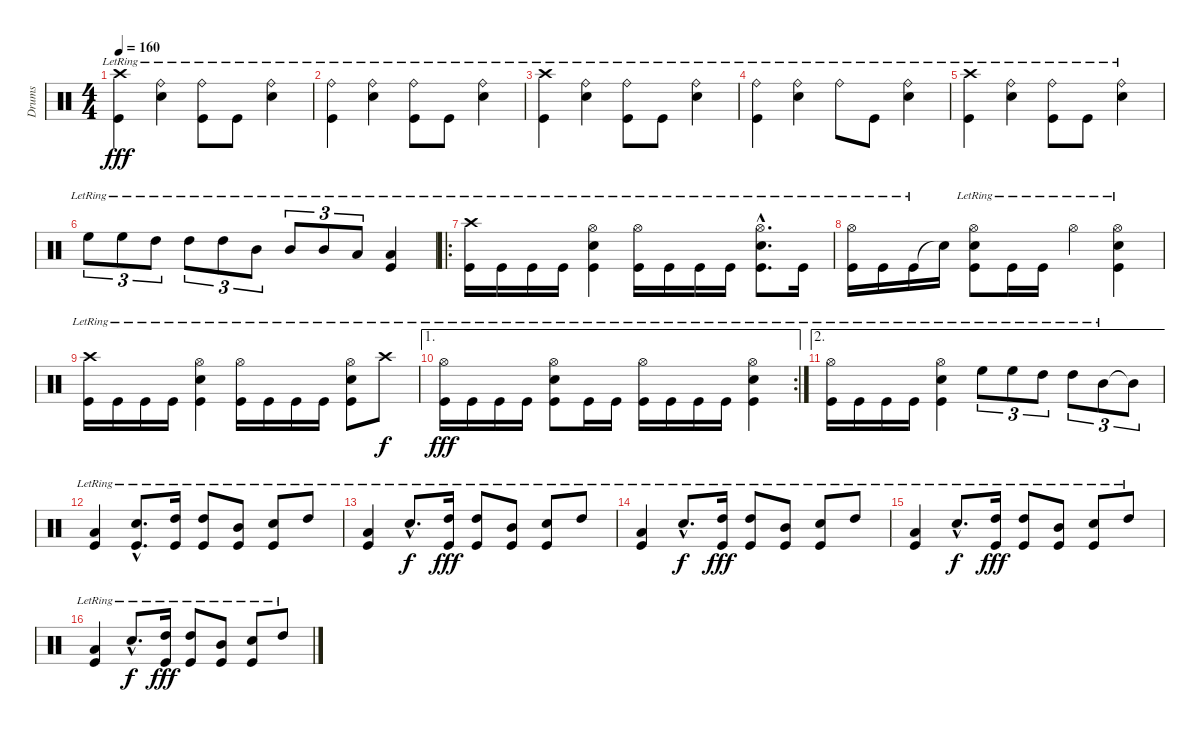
\track ("Drums" "Drums") {instrument percussion}
\staff {score}
\articulation defaults
\ts (4 4)
\tempo 160
\clef neutral
\ks c
("Crash high (hit)"{lr} "Kick (hit)"{lr}).4{dy fff} ("Ride (bell)"{lr} "Snare (hit) 2"{lr}).4 ("Ride (bell)"{lr} "Kick (hit)"{lr}).8 "Kick (hit)"{lr}.8 ("Ride (bell)"{lr} "Snare (hit) 2"{lr}).4 |
("Ride (bell)"{lr} "Kick (hit)"{lr}).4 ("Ride (bell)"{lr} "Snare (hit) 2"{lr}).4 ("Ride (bell)"{lr} "Kick (hit)"{lr}).8 "Kick (hit)"{lr}.8 ("Ride (bell)"{lr} "Snare (hit) 2"{lr}).4 |
("Crash high (hit)"{lr} "Kick (hit)"{lr}).4 ("Ride (bell)"{lr} "Snare (hit) 2"{lr}).4 ("Ride (bell)"{lr} "Kick (hit)"{lr}).8 "Kick (hit)"{lr}.8 ("Ride (bell)"{lr} "Snare (hit) 2"{lr}).4 |
("Ride (bell)"{lr} "Kick (hit)"{lr}).4 ("Ride (bell)"{lr} "Snare (hit) 2"{lr}).4 "Ride (bell)"{lr}.8 "Kick (hit)"{lr}.8 ("Ride (bell)"{lr} "Snare (hit) 2"{lr}).4 |
("Crash high (hit)"{lr} "Kick (hit)"{lr}).4 ("Ride (bell)"{lr} "Snare (hit) 2"{lr}).4 ("Ride (bell)"{lr} "Kick (hit)"{lr}).8 "Kick (hit)"{lr}.8 ("Ride (bell)"{lr} "Snare (hit) 2"{lr}).4 |
"High Floor Tom (hit)"{lr}.8{tu (3 2)} "High Floor Tom (hit)"{lr}.8{tu (3 2)} "High Tom (hit)"{lr}.8{tu (3 2)} "High Tom (hit)"{lr}.8{tu (3 2)} "High Tom (hit)"{lr}.8{tu (3 2)} "Mid Tom (hit)"{lr}.8{tu (3 2)} "Mid Tom (hit)"{lr}.8{tu (3 2)} "Mid Tom (hit)"{lr}.8{tu (3 2)} "Low Tom (hit)"{lr}.8{tu (3 2)} ("Low Tom (hit)"{lr} "Kick (hit)"{lr}).4 |
\ro
("Crash high (hit)"{lr} "Kick (hit)"{lr}).16 "Kick (hit)"{lr}.16 "Kick (hit)"{lr}.16 "Kick (hit)"{lr}.16 ("Hi-Hat (open)"{lr} "Snare (hit) 2"{lr} "Kick (hit)"{lr}).4 ("Hi-Hat (open)"{lr} "Kick (hit)"{lr}).16 "Kick (hit)"{lr}.16 "Kick (hit)"{lr}.16 "Kick (hit)"{lr}.16 ("Hi-Hat (open)"{hac lr} "Snare (hit) 2"{hac lr} "Kick (hit)"{hac lr}).8{d} "Kick (hit)"{lr}.16 |
("Hi-Hat (open)"{lr} "Kick (hit)"{lr}).16 "Kick (hit)"{lr}.16 "Kick (hit)"{lr}.16 "Snare (hit)"{t}.16 ("Hi-Hat (open)"{lr} "Snare (hit) 2"{lr} "Kick (hit)"{lr}).8 "Kick (hit)"{lr}.16 "Kick (hit)"{lr}.16 "Hi-Hat (open)"{lr}.4 ("Hi-Hat (open)"{lr} "Snare (hit) 2"{lr} "Kick (hit)"{lr}).4 |
("Crash high (hit)"{lr} "Kick (hit)"{lr}).16 "Kick (hit)"{lr}.16 "Kick (hit)"{lr}.16 "Kick (hit)"{lr}.16 ("Hi-Hat (open)"{lr} "Snare (hit) 2"{lr} "Kick (hit)"{lr}).4 ("Hi-Hat (open)"{lr} "Kick (hit)"{lr}).16 "Kick (hit)"{lr}.16 "Kick (hit)"{lr}.16 "Kick (hit)"{lr}.16 ("Hi-Hat (open)"{lr} "Snare (hit) 2"{lr} "Kick (hit)"{lr}).8 "Crash high (hit)"{lr}.8{dy f} |
\ae 1
\rc 2
("Hi-Hat (open)"{lr} "Kick (hit)"{lr}).16{dy fff} "Kick (hit)"{lr}.16 "Kick (hit)"{lr}.16 "Kick (hit)"{lr}.16 ("Hi-Hat (open)"{lr} "Snare (hit) 2"{lr} "Kick (hit)"{lr}).8 "Kick (hit)"{lr}.16 "Kick (hit)"{lr}.16 ("Hi-Hat (open)"{lr} "Kick (hit)"{lr}).16 "Kick (hit)"{lr}.16 "Kick (hit)"{lr}.16 "Kick (hit)"{lr}.16 ("Hi-Hat (open)"{lr} "Snare (hit) 2"{lr} "Kick (hit)"{lr}).4 |
\ae 2
("Hi-Hat (open)"{lr} "Kick (hit)"{lr}).16 "Kick (hit)"{lr}.16 "Kick (hit)"{lr}.16 "Kick (hit)"{lr}.16 ("Hi-Hat (open)"{lr} "Snare (hit) 2"{lr} "Kick (hit)"{lr}).4 "High Floor Tom (hit)"{lr}.8{tu (3 2)} "High Floor Tom (hit)"{lr}.8{tu (3 2)} "High Tom (hit)"{lr}.8{tu (3 2)} "High Tom (hit)"{lr}.8{tu (3 2)} "Mid Tom (hit)"{lr}.8{tu (3 2)} "Mid Tom (hit)"{t}.8{tu (3 2)} |
("Low Floor Tom (hit)"{lr} "Kick (hit)"{lr}).4 ("Snare (hit) 2"{hac lr} "Kick (hit)"{hac lr}).8{d} ("High Tom (hit)"{lr} "Kick (hit)"{lr}).16 ("High Tom (hit)"{lr} "Kick (hit)"{lr}).8 ("Mid Tom (hit)"{lr} "Kick (hit)"{lr}).8 ("Snare (hit) 2"{lr} "Kick (hit)"{lr}).8 "High Tom (hit)"{lr}.8 |
("Low Floor Tom (hit)"{lr} "Kick (hit)"{lr}).4 "Snare (hit) 2"{hac lr}.8{d dy f} ("High Tom (hit)"{lr} "Kick (hit)"{lr}).16{dy fff} ("High Tom (hit)"{lr} "Kick (hit)"{lr}).8 ("Mid Tom (hit)"{lr} "Kick (hit)"{lr}).8 ("Snare (hit) 2"{lr} "Kick (hit)"{lr}).8 "High Tom (hit)"{lr}.8 |
("Low Floor Tom (hit)"{lr} "Kick (hit)"{lr}).4 "Snare (hit) 2"{hac lr}.8{d dy f} ("High Tom (hit)"{lr} "Kick (hit)"{lr}).16{dy fff} ("High Tom (hit)"{lr} "Kick (hit)"{lr}).8 ("Mid Tom (hit)"{lr} "Kick (hit)"{lr}).8 ("Snare (hit) 2"{lr} "Kick (hit)"{lr}).8 "High Tom (hit)"{lr}.8 |
("Low Floor Tom (hit)"{lr} "Kick (hit)"{lr}).4 "Snare (hit) 2"{hac lr}.8{d dy f} ("High Tom (hit)"{lr} "Kick (hit)"{lr}).16{dy fff} ("High Tom (hit)"{lr} "Kick (hit)"{lr}).8 ("Mid Tom (hit)"{lr} "Kick (hit)"{lr}).8 ("Snare (hit) 2"{lr} "Kick (hit)"{lr}).8 "High Tom (hit)"{lr}.8 |
("Low Floor Tom (hit)"{lr} "Kick (hit)"{lr}).4 "Snare (hit) 2"{hac lr}.8{d dy f} ("High Tom (hit)"{lr} "Kick (hit)"{lr}).16{dy fff} ("High Tom (hit)"{lr} "Kick (hit)"{lr}).8 ("Mid Tom (hit)"{lr} "Kick (hit)"{lr}).8 ("Snare (hit) 2"{lr} "Kick (hit)"{lr}).8 "High Tom (hit)"{lr}.8
